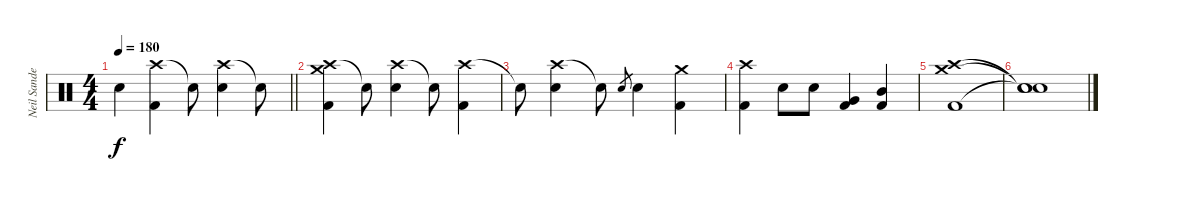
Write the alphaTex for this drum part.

\track ("Neil Sanderson-Drums" "Neil Sande") {instrument percussion}
\staff {score}
\articulation defaults
\ts (4 4)
\tempo 180
\clef neutral
\barLineRight lightlight
\ks c "Snare (hit)"{t}.4{dy f}
("Crash high (hit)" "Kick (hit) 2").4 "Snare (hit)"{t}.8 ("Crash high (hit)" "Snare (hit) 2").4 "Snare (hit)"{t}.8 |
("Crash high (hit)" "Crash medium (hit)" "Kick (hit) 2").4 "Snare (hit)"{t}.8 ("Crash high (hit)" "Snare (hit) 2").4 "Snare (hit)"{t}.8 ("Crash high (hit)" "Kick (hit) 2").4 |
"Snare (hit)"{t}.8 ("Crash high (hit)" "Snare (hit) 2").4 "Snare (hit)"{t}.8 "Snare (hit) 2".8{gr} "Snare (hit) 2".4 ("Crash medium (hit)" "Kick (hit) 2").4 |
("Crash high (hit)" "Kick (hit) 2").4 "Snare (hit) 2".8 "Snare (hit) 2".8 ("Very Low Tom (hit)" "Kick (hit) 2").4 ("Mid Tom (hit)" "Kick (hit) 2").4 |
("Crash medium (hit)" "Crash high (hit)" "Kick (hit) 2").1 |
("Snare (hit)"{t} "Snare (hit)"{t} "Snare (hit)"{t}).1
